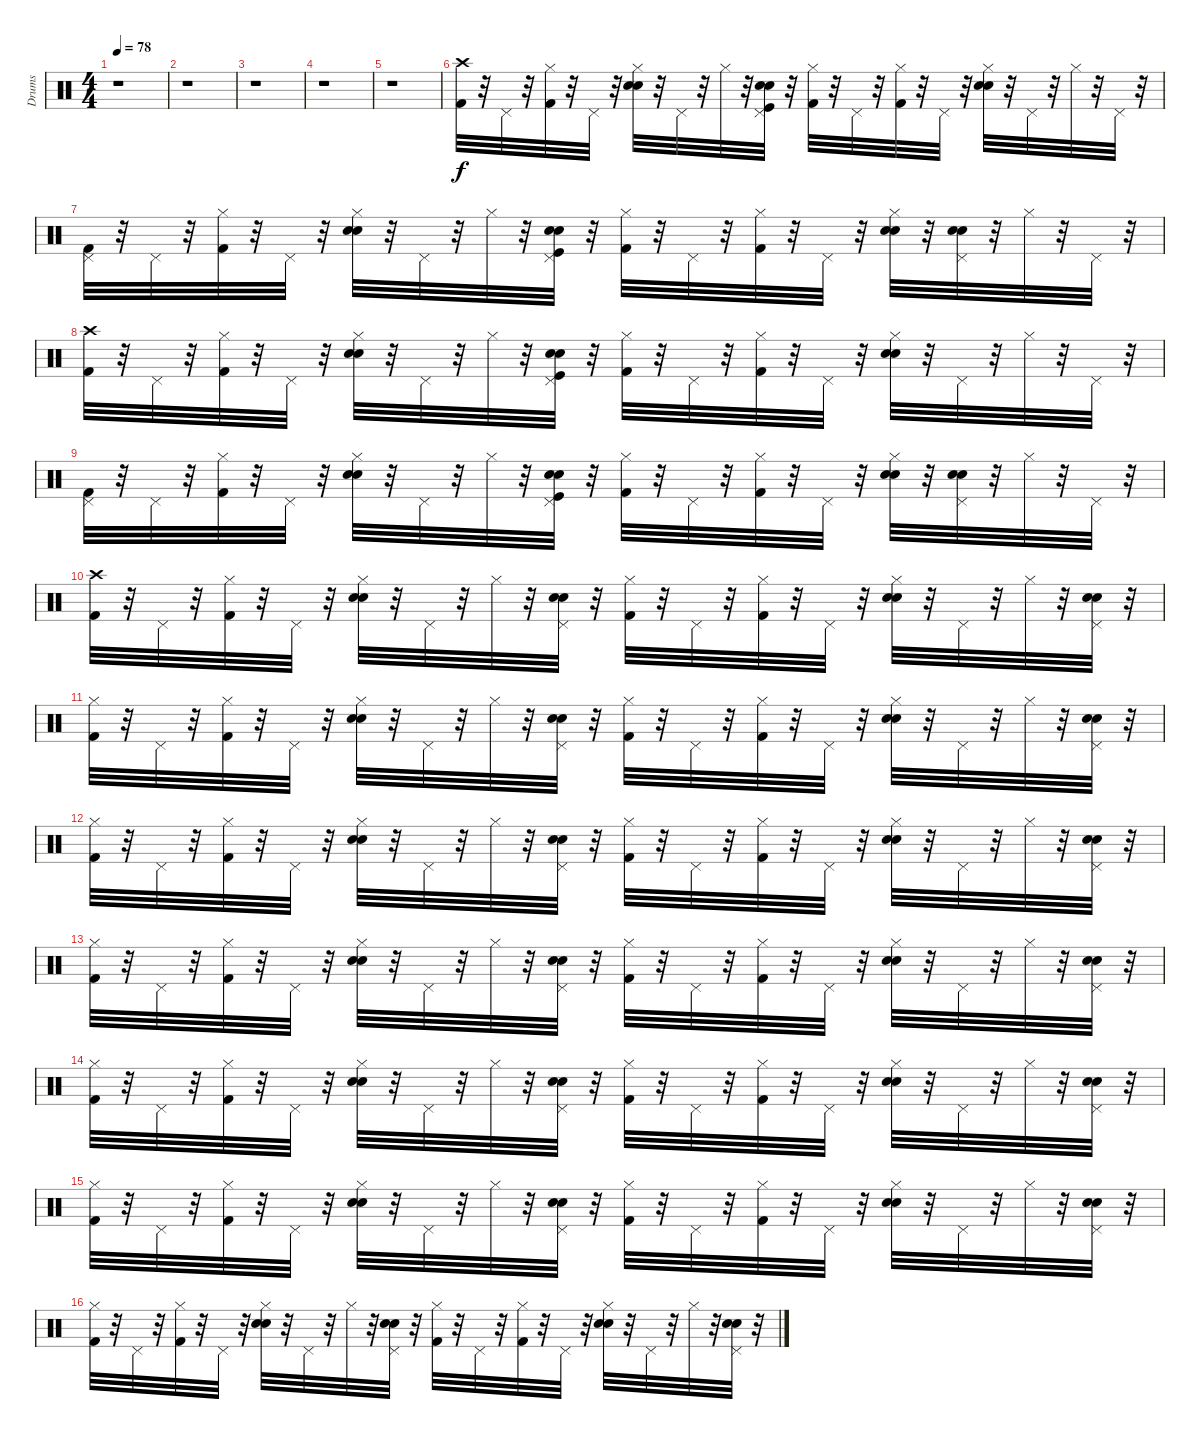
\track ("Drums" "Drums") {instrument percussion}
\staff {score}
\articulation defaults
\ts (4 4)
\tempo 78
\clef neutral
\ks c
r.1{dy f} |
r.1 |
r.1 |
r.1 |
r.1 |
("Crash high (hit)" "Kick (hit) 2").32 r.32 "Pedal Hi-Hat (hit)".32 r.32 ("Hi-Hat (closed)" "Kick (hit) 2").32 r.32 "Pedal Hi-Hat (hit)".32 r.32 ("Hi-Hat (closed)" "Hand Clap (hit)" "Electric Snare (hit)").32 r.32 "Pedal Hi-Hat (hit)".32 r.32 "Hi-Hat (closed)".32 r.32 ("Hand Clap (hit)" "Electric Snare (hit)" "Pedal Hi-Hat (hit)" "Kick (hit)").32 r.32 ("Hi-Hat (closed)" "Kick (hit) 2").32 r.32 "Pedal Hi-Hat (hit)".32 r.32 ("Hi-Hat (closed)" "Kick (hit) 2").32 r.32 "Pedal Hi-Hat (hit)".32 r.32 ("Hi-Hat (closed)" "Hand Clap (hit)" "Electric Snare (hit)").32 r.32 "Pedal Hi-Hat (hit)".32 r.32 "Hi-Hat (closed)".32 r.32 "Pedal Hi-Hat (hit)".32 r.32 |
("Pedal Hi-Hat (hit)" "Kick (hit) 2").32 r.32 "Pedal Hi-Hat (hit)".32 r.32 ("Hi-Hat (closed)" "Kick (hit) 2").32 r.32 "Pedal Hi-Hat (hit)".32 r.32 ("Hi-Hat (closed)" "Hand Clap (hit)" "Electric Snare (hit)").32 r.32 "Pedal Hi-Hat (hit)".32 r.32 "Hi-Hat (closed)".32 r.32 ("Hand Clap (hit)" "Electric Snare (hit)" "Pedal Hi-Hat (hit)" "Kick (hit)").32 r.32 ("Hi-Hat (closed)" "Kick (hit) 2").32 r.32 "Pedal Hi-Hat (hit)".32 r.32 ("Hi-Hat (closed)" "Kick (hit) 2").32 r.32 "Pedal Hi-Hat (hit)".32 r.32 ("Hi-Hat (closed)" "Hand Clap (hit)" "Electric Snare (hit)").32 r.32 ("Hand Clap (hit)" "Electric Snare (hit)" "Pedal Hi-Hat (hit)").32 r.32 "Hi-Hat (closed)".32 r.32 "Pedal Hi-Hat (hit)".32 r.32 |
("Crash high (hit)" "Kick (hit) 2").32 r.32 "Pedal Hi-Hat (hit)".32 r.32 ("Hi-Hat (closed)" "Kick (hit) 2").32 r.32 "Pedal Hi-Hat (hit)".32 r.32 ("Hi-Hat (closed)" "Hand Clap (hit)" "Electric Snare (hit)").32 r.32 "Pedal Hi-Hat (hit)".32 r.32 "Hi-Hat (closed)".32 r.32 ("Hand Clap (hit)" "Electric Snare (hit)" "Pedal Hi-Hat (hit)" "Kick (hit)").32 r.32 ("Hi-Hat (closed)" "Kick (hit) 2").32 r.32 "Pedal Hi-Hat (hit)".32 r.32 ("Hi-Hat (closed)" "Kick (hit) 2").32 r.32 "Pedal Hi-Hat (hit)".32 r.32 ("Hi-Hat (closed)" "Hand Clap (hit)" "Electric Snare (hit)").32 r.32 "Pedal Hi-Hat (hit)".32 r.32 "Hi-Hat (closed)".32 r.32 "Pedal Hi-Hat (hit)".32 r.32 |
("Pedal Hi-Hat (hit)" "Kick (hit) 2").32 r.32 "Pedal Hi-Hat (hit)".32 r.32 ("Hi-Hat (closed)" "Kick (hit) 2").32 r.32 "Pedal Hi-Hat (hit)".32 r.32 ("Hi-Hat (closed)" "Hand Clap (hit)" "Electric Snare (hit)").32 r.32 "Pedal Hi-Hat (hit)".32 r.32 "Hi-Hat (closed)".32 r.32 ("Hand Clap (hit)" "Electric Snare (hit)" "Pedal Hi-Hat (hit)" "Kick (hit)").32 r.32 ("Hi-Hat (closed)" "Kick (hit) 2").32 r.32 "Pedal Hi-Hat (hit)".32 r.32 ("Hi-Hat (closed)" "Kick (hit) 2").32 r.32 "Pedal Hi-Hat (hit)".32 r.32 ("Hi-Hat (closed)" "Hand Clap (hit)" "Electric Snare (hit)").32 r.32 ("Hand Clap (hit)" "Electric Snare (hit)" "Pedal Hi-Hat (hit)").32 r.32 "Hi-Hat (closed)".32 r.32 "Pedal Hi-Hat (hit)".32 r.32 |
("Kick (hit) 2" "Crash high (hit)").32 r.32 "Pedal Hi-Hat (hit)".32 r.32 ("Kick (hit) 2" "Hi-Hat (closed)").32 r.32 "Pedal Hi-Hat (hit)".32 r.32 ("Snare (hit) 2" "Electric Snare (hit)" "Hi-Hat (closed)").32 r.32 "Pedal Hi-Hat (hit)".32 r.32 "Hi-Hat (closed)".32 r.32 ("Snare (hit) 2" "Electric Snare (hit)" "Pedal Hi-Hat (hit)").32 r.32 ("Kick (hit) 2" "Hi-Hat (closed)").32 r.32 "Pedal Hi-Hat (hit)".32 r.32 ("Kick (hit) 2" "Hi-Hat (closed)").32 r.32 "Pedal Hi-Hat (hit)".32 r.32 ("Electric Snare (hit)" "Snare (hit) 2" "Hi-Hat (closed)").32 r.32 "Pedal Hi-Hat (hit)".32 r.32 "Hi-Hat (closed)".32 r.32 ("Pedal Hi-Hat (hit)" "Snare (hit) 2" "Electric Snare (hit)").32 r.32 |
("Hi-Hat (closed)" "Kick (hit) 2").32 r.32 "Pedal Hi-Hat (hit)".32 r.32 ("Kick (hit) 2" "Hi-Hat (closed)").32 r.32 "Pedal Hi-Hat (hit)".32 r.32 ("Snare (hit) 2" "Electric Snare (hit)" "Hi-Hat (closed)").32 r.32 "Pedal Hi-Hat (hit)".32 r.32 "Hi-Hat (closed)".32 r.32 ("Snare (hit) 2" "Electric Snare (hit)" "Pedal Hi-Hat (hit)").32 r.32 ("Kick (hit) 2" "Hi-Hat (closed)").32 r.32 "Pedal Hi-Hat (hit)".32 r.32 ("Kick (hit) 2" "Hi-Hat (closed)").32 r.32 "Pedal Hi-Hat (hit)".32 r.32 ("Electric Snare (hit)" "Snare (hit) 2" "Hi-Hat (closed)").32 r.32 "Pedal Hi-Hat (hit)".32 r.32 "Hi-Hat (closed)".32 r.32 ("Pedal Hi-Hat (hit)" "Snare (hit) 2" "Electric Snare (hit)").32 r.32 |
("Hi-Hat (closed)" "Kick (hit) 2").32 r.32 "Pedal Hi-Hat (hit)".32 r.32 ("Kick (hit) 2" "Hi-Hat (closed)").32 r.32 "Pedal Hi-Hat (hit)".32 r.32 ("Snare (hit) 2" "Electric Snare (hit)" "Hi-Hat (closed)").32 r.32 "Pedal Hi-Hat (hit)".32 r.32 "Hi-Hat (closed)".32 r.32 ("Snare (hit) 2" "Electric Snare (hit)" "Pedal Hi-Hat (hit)").32 r.32 ("Kick (hit) 2" "Hi-Hat (closed)").32 r.32 "Pedal Hi-Hat (hit)".32 r.32 ("Kick (hit) 2" "Hi-Hat (closed)").32 r.32 "Pedal Hi-Hat (hit)".32 r.32 ("Electric Snare (hit)" "Snare (hit) 2" "Hi-Hat (closed)").32 r.32 "Pedal Hi-Hat (hit)".32 r.32 "Hi-Hat (closed)".32 r.32 ("Pedal Hi-Hat (hit)" "Snare (hit) 2" "Electric Snare (hit)").32 r.32 |
("Hi-Hat (closed)" "Kick (hit) 2").32 r.32 "Pedal Hi-Hat (hit)".32 r.32 ("Kick (hit) 2" "Hi-Hat (closed)").32 r.32 "Pedal Hi-Hat (hit)".32 r.32 ("Snare (hit) 2" "Electric Snare (hit)" "Hi-Hat (closed)").32 r.32 "Pedal Hi-Hat (hit)".32 r.32 "Hi-Hat (closed)".32 r.32 ("Snare (hit) 2" "Electric Snare (hit)" "Pedal Hi-Hat (hit)").32 r.32 ("Kick (hit) 2" "Hi-Hat (closed)").32 r.32 "Pedal Hi-Hat (hit)".32 r.32 ("Kick (hit) 2" "Hi-Hat (closed)").32 r.32 "Pedal Hi-Hat (hit)".32 r.32 ("Electric Snare (hit)" "Snare (hit) 2" "Hi-Hat (closed)").32 r.32 "Pedal Hi-Hat (hit)".32 r.32 "Hi-Hat (closed)".32 r.32 ("Pedal Hi-Hat (hit)" "Snare (hit) 2" "Electric Snare (hit)").32 r.32 |
("Hi-Hat (closed)" "Kick (hit) 2").32 r.32 "Pedal Hi-Hat (hit)".32 r.32 ("Kick (hit) 2" "Hi-Hat (closed)").32 r.32 "Pedal Hi-Hat (hit)".32 r.32 ("Snare (hit) 2" "Electric Snare (hit)" "Hi-Hat (closed)").32 r.32 "Pedal Hi-Hat (hit)".32 r.32 "Hi-Hat (closed)".32 r.32 ("Snare (hit) 2" "Electric Snare (hit)" "Pedal Hi-Hat (hit)").32 r.32 ("Kick (hit) 2" "Hi-Hat (closed)").32 r.32 "Pedal Hi-Hat (hit)".32 r.32 ("Kick (hit) 2" "Hi-Hat (closed)").32 r.32 "Pedal Hi-Hat (hit)".32 r.32 ("Electric Snare (hit)" "Snare (hit) 2" "Hi-Hat (closed)").32 r.32 "Pedal Hi-Hat (hit)".32 r.32 "Hi-Hat (closed)".32 r.32 ("Pedal Hi-Hat (hit)" "Snare (hit) 2" "Electric Snare (hit)").32 r.32 |
("Hi-Hat (closed)" "Kick (hit) 2").32 r.32 "Pedal Hi-Hat (hit)".32 r.32 ("Kick (hit) 2" "Hi-Hat (closed)").32 r.32 "Pedal Hi-Hat (hit)".32 r.32 ("Snare (hit) 2" "Electric Snare (hit)" "Hi-Hat (closed)").32 r.32 "Pedal Hi-Hat (hit)".32 r.32 "Hi-Hat (closed)".32 r.32 ("Snare (hit) 2" "Electric Snare (hit)" "Pedal Hi-Hat (hit)").32 r.32 ("Kick (hit) 2" "Hi-Hat (closed)").32 r.32 "Pedal Hi-Hat (hit)".32 r.32 ("Kick (hit) 2" "Hi-Hat (closed)").32 r.32 "Pedal Hi-Hat (hit)".32 r.32 ("Electric Snare (hit)" "Snare (hit) 2" "Hi-Hat (closed)").32 r.32 "Pedal Hi-Hat (hit)".32 r.32 "Hi-Hat (closed)".32 r.32 ("Pedal Hi-Hat (hit)" "Snare (hit) 2" "Electric Snare (hit)").32 r.32 |
("Hi-Hat (closed)" "Kick (hit) 2").32 r.32 "Pedal Hi-Hat (hit)".32 r.32 ("Kick (hit) 2" "Hi-Hat (closed)").32 r.32 "Pedal Hi-Hat (hit)".32 r.32 ("Snare (hit) 2" "Electric Snare (hit)" "Hi-Hat (closed)").32 r.32 "Pedal Hi-Hat (hit)".32 r.32 "Hi-Hat (closed)".32 r.32 ("Snare (hit) 2" "Electric Snare (hit)" "Pedal Hi-Hat (hit)").32 r.32 ("Kick (hit) 2" "Hi-Hat (closed)").32 r.32 "Pedal Hi-Hat (hit)".32 r.32 ("Kick (hit) 2" "Hi-Hat (closed)").32 r.32 "Pedal Hi-Hat (hit)".32 r.32 ("Electric Snare (hit)" "Snare (hit) 2" "Hi-Hat (closed)").32 r.32 "Pedal Hi-Hat (hit)".32 r.32 "Hi-Hat (closed)".32 r.32 ("Pedal Hi-Hat (hit)" "Snare (hit) 2" "Electric Snare (hit)").32 r.32
